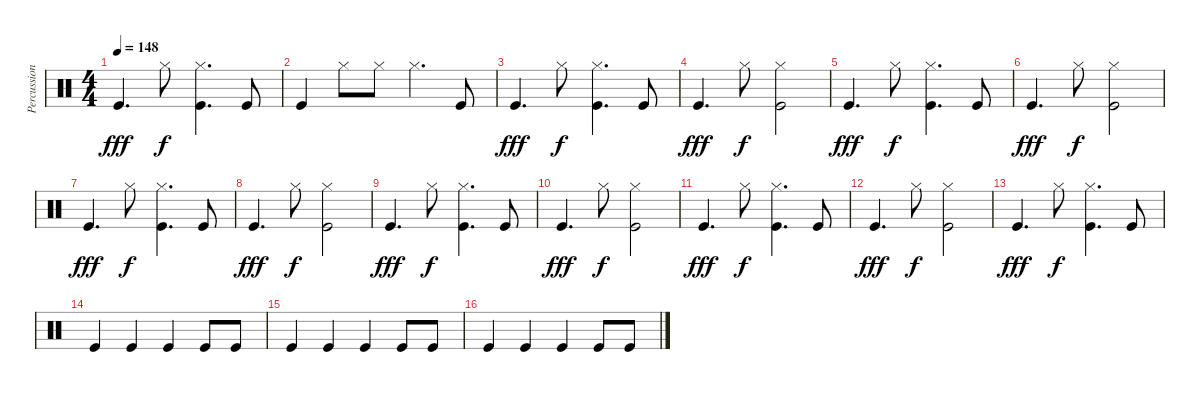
\track ("Percussion" "Percussion") {instrument percussion}
\staff {score}
\articulation defaults
\ts (4 4)
\tempo 148
\clef neutral
\ks c "Kick (hit)".4{d dy fff} "Hi-Hat (closed)".8{dy f}
("Hi-Hat (closed)" "Kick (hit)").4{d} "Kick (hit)".8 |
"Kick (hit)".4 "Hi-Hat (closed)".8 "Hi-Hat (closed)".8 "Hi-Hat (closed)".4{d} "Kick (hit)".8 |
"Kick (hit)".4{d dy fff} "Hi-Hat (closed)".8{dy f} ("Hi-Hat (closed)" "Kick (hit)").4{d} "Kick (hit)".8 |
"Kick (hit)".4{d dy fff} "Hi-Hat (closed)".8{dy f} ("Kick (hit)" "Hi-Hat (closed)").2 |
"Kick (hit)".4{d dy fff} "Hi-Hat (closed)".8{dy f} ("Hi-Hat (closed)" "Kick (hit)").4{d} "Kick (hit)".8 |
"Kick (hit)".4{d dy fff} "Hi-Hat (closed)".8{dy f} ("Kick (hit)" "Hi-Hat (closed)").2 |
"Kick (hit)".4{d dy fff} "Hi-Hat (closed)".8{dy f} ("Hi-Hat (closed)" "Kick (hit)").4{d} "Kick (hit)".8 |
"Kick (hit)".4{d dy fff} "Hi-Hat (closed)".8{dy f} ("Kick (hit)" "Hi-Hat (closed)").2 |
"Kick (hit)".4{d dy fff} "Hi-Hat (closed)".8{dy f} ("Hi-Hat (closed)" "Kick (hit)").4{d} "Kick (hit)".8 |
"Kick (hit)".4{d dy fff} "Hi-Hat (closed)".8{dy f} ("Kick (hit)" "Hi-Hat (closed)").2 |
"Kick (hit)".4{d dy fff} "Hi-Hat (closed)".8{dy f} ("Hi-Hat (closed)" "Kick (hit)").4{d} "Kick (hit)".8 |
"Kick (hit)".4{d dy fff} "Hi-Hat (closed)".8{dy f} ("Kick (hit)" "Hi-Hat (closed)").2 |
"Kick (hit)".4{d dy fff} "Hi-Hat (closed)".8{dy f} ("Hi-Hat (closed)" "Kick (hit)").4{d} "Kick (hit)".8 |
"Kick (hit)".4 "Kick (hit)".4 "Kick (hit)".4 "Kick (hit)".8 "Kick (hit)".8 |
"Kick (hit)".4 "Kick (hit)".4 "Kick (hit)".4 "Kick (hit)".8 "Kick (hit)".8 |
"Kick (hit)".4 "Kick (hit)".4 "Kick (hit)".4 "Kick (hit)".8 "Kick (hit)".8
